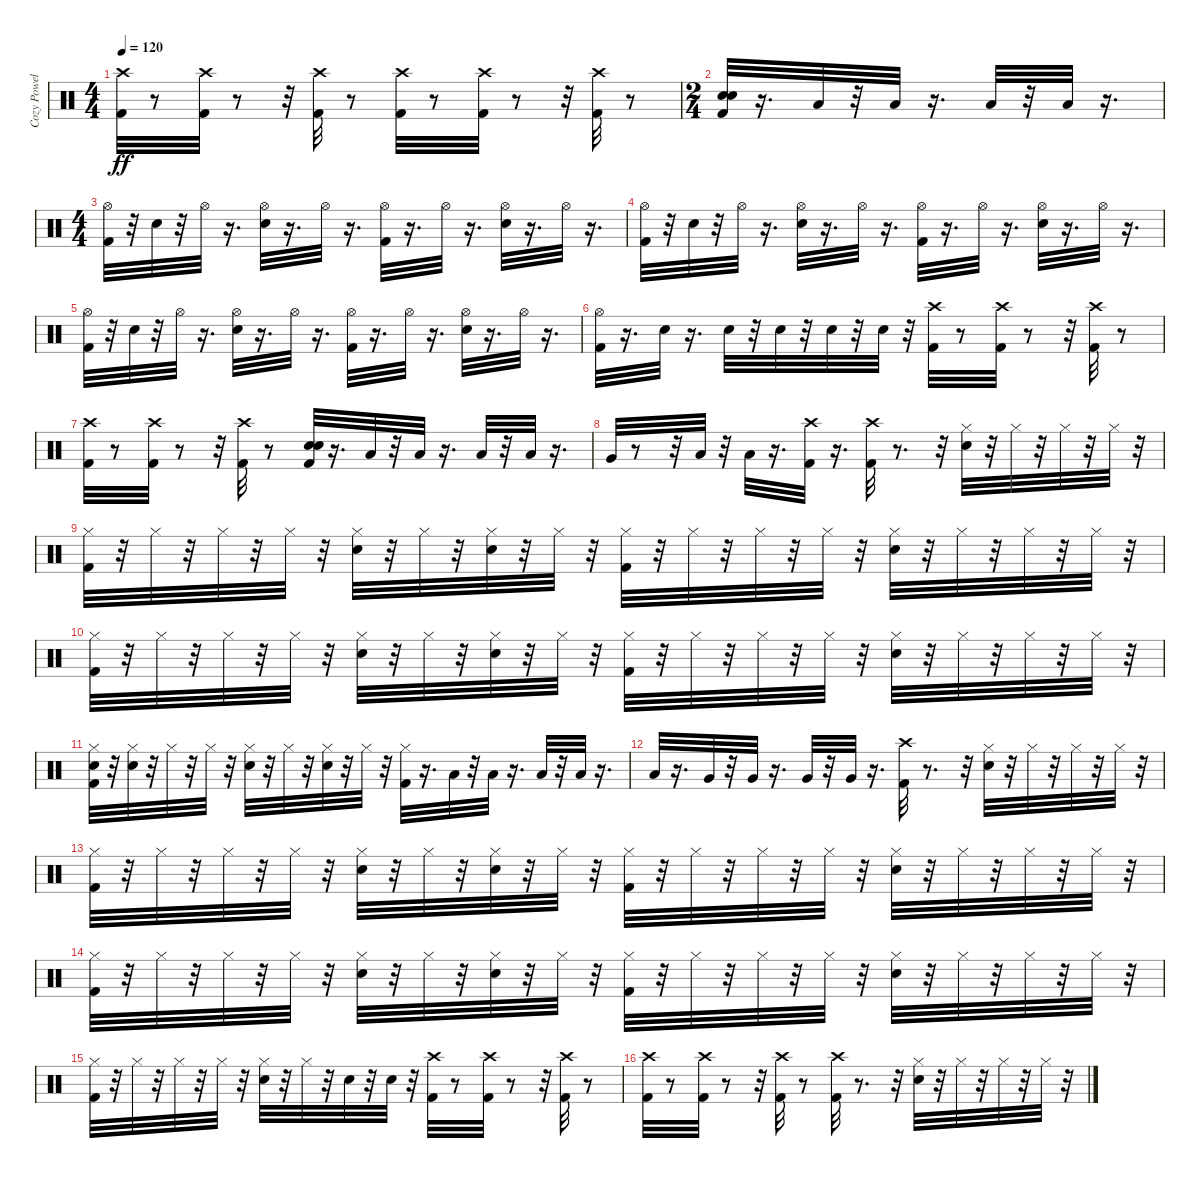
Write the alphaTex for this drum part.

\track ("Cozy Powel" "Cozy Powel") {instrument percussion}
\staff {score}
\articulation defaults
\ts (4 4)
\tempo 120
\clef neutral
\ks c
("Kick (hit) 2" "Crash high (hit)").32{dy ff} r.8 ("Kick (hit) 2" "Crash high (hit)").32 r.8 r.32 ("Kick (hit) 2" "Crash high (hit)").32 r.8 ("Kick (hit) 2" "Crash high (hit)").32 r.8 ("Kick (hit) 2" "Crash high (hit)").32 r.8 r.32 ("Kick (hit) 2" "Crash high (hit)").32 r.8 |
\ts (2 4)
("Kick (hit) 2" "Snare (hit) 2" "Snare (hit) 2").32 r.16{d} "Low Tom (hit)".32 r.32 "Low Tom (hit)".32 r.16{d} "Low Tom (hit)".32 r.32 "Low Tom (hit)".32 r.16{d} |
\ts (4 4)
("Kick (hit) 2" "Hi-Hat (open)").32 r.32 "Snare (hit) 2".32 r.32 "Hi-Hat (open)".32 r.16{d} ("Snare (hit) 2" "Hi-Hat (open)").32 r.16{d} "Hi-Hat (open)".32 r.16{d} ("Kick (hit) 2" "Hi-Hat (open)").32 r.16{d} "Hi-Hat (open)".32 r.16{d} ("Snare (hit) 2" "Hi-Hat (open)").32 r.16{d} "Hi-Hat (open)".32 r.16{d} |
("Kick (hit) 2" "Hi-Hat (open)").32 r.32 "Snare (hit) 2".32 r.32 "Hi-Hat (open)".32 r.16{d} ("Snare (hit) 2" "Hi-Hat (open)").32 r.16{d} "Hi-Hat (open)".32 r.16{d} ("Kick (hit) 2" "Hi-Hat (open)").32 r.16{d} "Hi-Hat (open)".32 r.16{d} ("Snare (hit) 2" "Hi-Hat (open)").32 r.16{d} "Hi-Hat (open)".32 r.16{d} |
("Kick (hit) 2" "Hi-Hat (open)").32 r.32 "Snare (hit) 2".32 r.32 "Hi-Hat (open)".32 r.16{d} ("Snare (hit) 2" "Hi-Hat (open)").32 r.16{d} "Hi-Hat (open)".32 r.16{d} ("Kick (hit) 2" "Hi-Hat (open)").32 r.16{d} "Hi-Hat (open)".32 r.16{d} ("Snare (hit) 2" "Hi-Hat (open)").32 r.16{d} "Hi-Hat (open)".32 r.16{d} |
("Kick (hit) 2" "Hi-Hat (open)").32 r.16{d} "Snare (hit) 2".32 r.16{d} "Snare (hit) 2".32 r.32 "Snare (hit) 2".32 r.32 "Snare (hit) 2".32 r.32 "Snare (hit) 2".32 r.32 ("Kick (hit) 2" "Crash high (hit)").32 r.8 ("Kick (hit) 2" "Crash high (hit)").32 r.8 r.32 ("Kick (hit) 2" "Crash high (hit)").32 r.8 |
("Kick (hit) 2" "Crash high (hit)").32 r.8 ("Kick (hit) 2" "Crash high (hit)").32 r.8 r.32 ("Kick (hit) 2" "Crash high (hit)").32 r.8 ("Kick (hit) 2" "Snare (hit) 2" "Snare (hit) 2").32 r.16{d} "Low Tom (hit)".32 r.32 "Low Tom (hit)".32 r.16{d} "Low Tom (hit)".32 r.32 "Low Tom (hit)".32 r.16{d} |
"Very Low Tom (hit)".32 r.8 r.32 "Low Tom (hit)".32 r.32 "Low Tom (hit)".32 r.16{d} ("Kick (hit) 2" "Crash high (hit)").32 r.16{d} ("Crash high (hit)" "Kick (hit) 2").32 r.8{d} r.32 ("Snare (hit) 2" "Hi-Hat (closed)").32 r.32 "Hi-Hat (closed)".32 r.32 "Hi-Hat (closed)".32 r.32 "Hi-Hat (closed)".32 r.32 |
("Kick (hit) 2" "Hi-Hat (closed)").32 r.32 "Hi-Hat (closed)".32 r.32 "Hi-Hat (closed)".32 r.32 "Hi-Hat (closed)".32 r.32 ("Snare (hit) 2" "Hi-Hat (closed)").32 r.32 "Hi-Hat (closed)".32 r.32 ("Snare (hit) 2" "Hi-Hat (closed)").32 r.32 "Hi-Hat (closed)".32 r.32 ("Hi-Hat (closed)" "Kick (hit) 2").32 r.32 "Hi-Hat (closed)".32 r.32 "Hi-Hat (closed)".32 r.32 "Hi-Hat (closed)".32 r.32 ("Hi-Hat (closed)" "Snare (hit) 2").32 r.32 "Hi-Hat (closed)".32 r.32 "Hi-Hat (closed)".32 r.32 "Hi-Hat (closed)".32 r.32 |
("Hi-Hat (closed)" "Kick (hit) 2").32 r.32 "Hi-Hat (closed)".32 r.32 "Hi-Hat (closed)".32 r.32 "Hi-Hat (closed)".32 r.32 ("Hi-Hat (closed)" "Snare (hit) 2").32 r.32 "Hi-Hat (closed)".32 r.32 ("Hi-Hat (closed)" "Snare (hit) 2").32 r.32 "Hi-Hat (closed)".32 r.32 ("Hi-Hat (closed)" "Kick (hit) 2").32 r.32 "Hi-Hat (closed)".32 r.32 "Hi-Hat (closed)".32 r.32 "Hi-Hat (closed)".32 r.32 ("Hi-Hat (closed)" "Snare (hit) 2").32 r.32 "Hi-Hat (closed)".32 r.32 "Hi-Hat (closed)".32 r.32 "Hi-Hat (closed)".32 r.32 |
("Hi-Hat (closed)" "Kick (hit) 2" "Snare (hit) 2").32 r.32 ("Hi-Hat (closed)" "Snare (hit) 2").32 r.32 "Hi-Hat (closed)".32 r.32 "Hi-Hat (closed)".32 r.32 ("Hi-Hat (closed)" "Snare (hit) 2").32 r.32 "Hi-Hat (closed)".32 r.32 ("Hi-Hat (closed)" "Snare (hit) 2").32 r.32 "Hi-Hat (closed)".32 r.32 ("Kick (hit) 2" "Hi-Hat (closed)").32 r.16{d} "Low Tom (hit)".32 r.32 "Low Tom (hit)".32 r.16{d} "Low Tom (hit)".32 r.32 "Low Tom (hit)".32 r.16{d} |
"Low Tom (hit)".32 r.16{d} "Very Low Tom (hit)".32 r.32 "Very Low Tom (hit)".32 r.16{d} "Very Low Tom (hit)".32 r.32 "Very Low Tom (hit)".32 r.16{d} ("Crash high (hit)" "Kick (hit) 2").32 r.8{d} r.32 ("Snare (hit) 2" "Hi-Hat (closed)").32 r.32 "Hi-Hat (closed)".32 r.32 "Hi-Hat (closed)".32 r.32 "Hi-Hat (closed)".32 r.32 |
("Kick (hit) 2" "Hi-Hat (closed)").32 r.32 "Hi-Hat (closed)".32 r.32 "Hi-Hat (closed)".32 r.32 "Hi-Hat (closed)".32 r.32 ("Snare (hit) 2" "Hi-Hat (closed)").32 r.32 "Hi-Hat (closed)".32 r.32 ("Snare (hit) 2" "Hi-Hat (closed)").32 r.32 "Hi-Hat (closed)".32 r.32 ("Hi-Hat (closed)" "Kick (hit) 2").32 r.32 "Hi-Hat (closed)".32 r.32 "Hi-Hat (closed)".32 r.32 "Hi-Hat (closed)".32 r.32 ("Hi-Hat (closed)" "Snare (hit) 2").32 r.32 "Hi-Hat (closed)".32 r.32 "Hi-Hat (closed)".32 r.32 "Hi-Hat (closed)".32 r.32 |
("Hi-Hat (closed)" "Kick (hit) 2").32 r.32 "Hi-Hat (closed)".32 r.32 "Hi-Hat (closed)".32 r.32 "Hi-Hat (closed)".32 r.32 ("Hi-Hat (closed)" "Snare (hit) 2").32 r.32 "Hi-Hat (closed)".32 r.32 ("Hi-Hat (closed)" "Snare (hit) 2").32 r.32 "Hi-Hat (closed)".32 r.32 ("Hi-Hat (closed)" "Kick (hit) 2").32 r.32 "Hi-Hat (closed)".32 r.32 "Hi-Hat (closed)".32 r.32 "Hi-Hat (closed)".32 r.32 ("Hi-Hat (closed)" "Snare (hit) 2").32 r.32 "Hi-Hat (closed)".32 r.32 "Hi-Hat (closed)".32 r.32 "Hi-Hat (closed)".32 r.32 |
("Hi-Hat (closed)" "Kick (hit) 2").32 r.32 "Hi-Hat (closed)".32 r.32 "Hi-Hat (closed)".32 r.32 "Hi-Hat (closed)".32 r.32 ("Hi-Hat (closed)" "Snare (hit) 2").32 r.32 "Hi-Hat (closed)".32 r.32 "Snare (hit) 2".32 r.32 "Snare (hit) 2".32 r.32 ("Kick (hit) 2" "Crash high (hit)").32 r.8 ("Kick (hit) 2" "Crash high (hit)").32 r.8 r.32 ("Kick (hit) 2" "Crash high (hit)").32 r.8 |
("Kick (hit) 2" "Crash high (hit)").32 r.8 ("Kick (hit) 2" "Crash high (hit)").32 r.8 r.32 ("Kick (hit) 2" "Crash high (hit)").32 r.8 ("Kick (hit) 2" "Crash high (hit)").32 r.8{d} r.32 ("Snare (hit) 2" "Hi-Hat (closed)").32 r.32 "Hi-Hat (closed)".32 r.32 "Hi-Hat (closed)".32 r.32 "Hi-Hat (closed)".32 r.32
